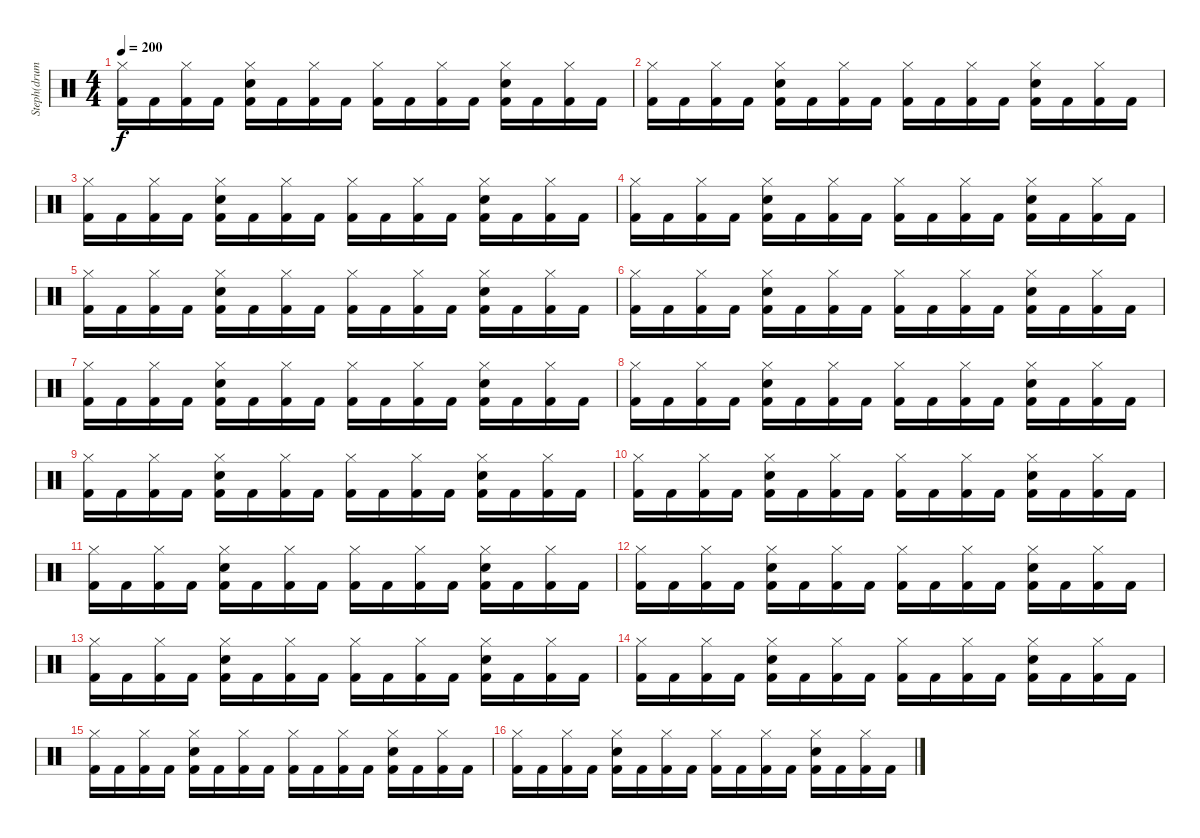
\track ("Steph(drums)" "Steph(drum") {instrument percussion}
\staff {score}
\articulation defaults
\ts (4 4)
\tempo 200
\clef neutral
\ks c
("Hi-Hat (closed)" "Kick (hit) 2").16{dy f} "Kick (hit) 2".16 ("Hi-Hat (closed)" "Kick (hit) 2").16 "Kick (hit) 2".16 ("Hi-Hat (closed)" "Electric Snare (hit)" "Kick (hit) 2").16 "Kick (hit) 2".16 ("Hi-Hat (closed)" "Kick (hit) 2").16 "Kick (hit) 2".16 ("Hi-Hat (closed)" "Kick (hit) 2").16 "Kick (hit) 2".16 ("Hi-Hat (closed)" "Kick (hit) 2").16 "Kick (hit) 2".16 ("Hi-Hat (closed)" "Electric Snare (hit)" "Kick (hit) 2").16 "Kick (hit) 2".16 ("Hi-Hat (closed)" "Kick (hit) 2").16 "Kick (hit) 2".16 |
("Hi-Hat (closed)" "Kick (hit) 2").16 "Kick (hit) 2".16 ("Hi-Hat (closed)" "Kick (hit) 2").16 "Kick (hit) 2".16 ("Hi-Hat (closed)" "Electric Snare (hit)" "Kick (hit) 2").16 "Kick (hit) 2".16 ("Hi-Hat (closed)" "Kick (hit) 2").16 "Kick (hit) 2".16 ("Hi-Hat (closed)" "Kick (hit) 2").16 "Kick (hit) 2".16 ("Hi-Hat (closed)" "Kick (hit) 2").16 "Kick (hit) 2".16 ("Hi-Hat (closed)" "Electric Snare (hit)" "Kick (hit) 2").16 "Kick (hit) 2".16 ("Hi-Hat (closed)" "Kick (hit) 2").16 "Kick (hit) 2".16 |
("Hi-Hat (closed)" "Kick (hit) 2").16 "Kick (hit) 2".16 ("Hi-Hat (closed)" "Kick (hit) 2").16 "Kick (hit) 2".16 ("Hi-Hat (closed)" "Electric Snare (hit)" "Kick (hit) 2").16 "Kick (hit) 2".16 ("Hi-Hat (closed)" "Kick (hit) 2").16 "Kick (hit) 2".16 ("Hi-Hat (closed)" "Kick (hit) 2").16 "Kick (hit) 2".16 ("Hi-Hat (closed)" "Kick (hit) 2").16 "Kick (hit) 2".16 ("Hi-Hat (closed)" "Electric Snare (hit)" "Kick (hit) 2").16 "Kick (hit) 2".16 ("Hi-Hat (closed)" "Kick (hit) 2").16 "Kick (hit) 2".16 |
("Hi-Hat (closed)" "Kick (hit) 2").16 "Kick (hit) 2".16 ("Hi-Hat (closed)" "Kick (hit) 2").16 "Kick (hit) 2".16 ("Hi-Hat (closed)" "Electric Snare (hit)" "Kick (hit) 2").16 "Kick (hit) 2".16 ("Hi-Hat (closed)" "Kick (hit) 2").16 "Kick (hit) 2".16 ("Hi-Hat (closed)" "Kick (hit) 2").16 "Kick (hit) 2".16 ("Hi-Hat (closed)" "Kick (hit) 2").16 "Kick (hit) 2".16 ("Hi-Hat (closed)" "Electric Snare (hit)" "Kick (hit) 2").16 "Kick (hit) 2".16 ("Hi-Hat (closed)" "Kick (hit) 2").16 "Kick (hit) 2".16 |
("Hi-Hat (closed)" "Kick (hit) 2").16 "Kick (hit) 2".16 ("Hi-Hat (closed)" "Kick (hit) 2").16 "Kick (hit) 2".16 ("Hi-Hat (closed)" "Electric Snare (hit)" "Kick (hit) 2").16 "Kick (hit) 2".16 ("Hi-Hat (closed)" "Kick (hit) 2").16 "Kick (hit) 2".16 ("Hi-Hat (closed)" "Kick (hit) 2").16 "Kick (hit) 2".16 ("Hi-Hat (closed)" "Kick (hit) 2").16 "Kick (hit) 2".16 ("Hi-Hat (closed)" "Electric Snare (hit)" "Kick (hit) 2").16 "Kick (hit) 2".16 ("Hi-Hat (closed)" "Kick (hit) 2").16 "Kick (hit) 2".16 |
("Hi-Hat (closed)" "Kick (hit) 2").16 "Kick (hit) 2".16 ("Hi-Hat (closed)" "Kick (hit) 2").16 "Kick (hit) 2".16 ("Hi-Hat (closed)" "Electric Snare (hit)" "Kick (hit) 2").16 "Kick (hit) 2".16 ("Hi-Hat (closed)" "Kick (hit) 2").16 "Kick (hit) 2".16 ("Hi-Hat (closed)" "Kick (hit) 2").16 "Kick (hit) 2".16 ("Hi-Hat (closed)" "Kick (hit) 2").16 "Kick (hit) 2".16 ("Hi-Hat (closed)" "Electric Snare (hit)" "Kick (hit) 2").16 "Kick (hit) 2".16 ("Hi-Hat (closed)" "Kick (hit) 2").16 "Kick (hit) 2".16 |
("Hi-Hat (closed)" "Kick (hit) 2").16 "Kick (hit) 2".16 ("Hi-Hat (closed)" "Kick (hit) 2").16 "Kick (hit) 2".16 ("Hi-Hat (closed)" "Electric Snare (hit)" "Kick (hit) 2").16 "Kick (hit) 2".16 ("Hi-Hat (closed)" "Kick (hit) 2").16 "Kick (hit) 2".16 ("Hi-Hat (closed)" "Kick (hit) 2").16 "Kick (hit) 2".16 ("Hi-Hat (closed)" "Kick (hit) 2").16 "Kick (hit) 2".16 ("Hi-Hat (closed)" "Electric Snare (hit)" "Kick (hit) 2").16 "Kick (hit) 2".16 ("Hi-Hat (closed)" "Kick (hit) 2").16 "Kick (hit) 2".16 |
("Hi-Hat (closed)" "Kick (hit) 2").16 "Kick (hit) 2".16 ("Hi-Hat (closed)" "Kick (hit) 2").16 "Kick (hit) 2".16 ("Hi-Hat (closed)" "Electric Snare (hit)" "Kick (hit) 2").16 "Kick (hit) 2".16 ("Hi-Hat (closed)" "Kick (hit) 2").16 "Kick (hit) 2".16 ("Hi-Hat (closed)" "Kick (hit) 2").16 "Kick (hit) 2".16 ("Hi-Hat (closed)" "Kick (hit) 2").16 "Kick (hit) 2".16 ("Hi-Hat (closed)" "Electric Snare (hit)" "Kick (hit) 2").16 "Kick (hit) 2".16 ("Hi-Hat (closed)" "Kick (hit) 2").16 "Kick (hit) 2".16 |
("Hi-Hat (closed)" "Kick (hit) 2").16 "Kick (hit) 2".16 ("Hi-Hat (closed)" "Kick (hit) 2").16 "Kick (hit) 2".16 ("Hi-Hat (closed)" "Electric Snare (hit)" "Kick (hit) 2").16 "Kick (hit) 2".16 ("Hi-Hat (closed)" "Kick (hit) 2").16 "Kick (hit) 2".16 ("Hi-Hat (closed)" "Kick (hit) 2").16 "Kick (hit) 2".16 ("Hi-Hat (closed)" "Kick (hit) 2").16 "Kick (hit) 2".16 ("Hi-Hat (closed)" "Electric Snare (hit)" "Kick (hit) 2").16 "Kick (hit) 2".16 ("Hi-Hat (closed)" "Kick (hit) 2").16 "Kick (hit) 2".16 |
("Hi-Hat (closed)" "Kick (hit) 2").16 "Kick (hit) 2".16 ("Hi-Hat (closed)" "Kick (hit) 2").16 "Kick (hit) 2".16 ("Hi-Hat (closed)" "Electric Snare (hit)" "Kick (hit) 2").16 "Kick (hit) 2".16 ("Hi-Hat (closed)" "Kick (hit) 2").16 "Kick (hit) 2".16 ("Hi-Hat (closed)" "Kick (hit) 2").16 "Kick (hit) 2".16 ("Hi-Hat (closed)" "Kick (hit) 2").16 "Kick (hit) 2".16 ("Hi-Hat (closed)" "Electric Snare (hit)" "Kick (hit) 2").16 "Kick (hit) 2".16 ("Hi-Hat (closed)" "Kick (hit) 2").16 "Kick (hit) 2".16 |
("Hi-Hat (closed)" "Kick (hit) 2").16 "Kick (hit) 2".16 ("Hi-Hat (closed)" "Kick (hit) 2").16 "Kick (hit) 2".16 ("Hi-Hat (closed)" "Electric Snare (hit)" "Kick (hit) 2").16 "Kick (hit) 2".16 ("Hi-Hat (closed)" "Kick (hit) 2").16 "Kick (hit) 2".16 ("Hi-Hat (closed)" "Kick (hit) 2").16 "Kick (hit) 2".16 ("Hi-Hat (closed)" "Kick (hit) 2").16 "Kick (hit) 2".16 ("Hi-Hat (closed)" "Electric Snare (hit)" "Kick (hit) 2").16 "Kick (hit) 2".16 ("Hi-Hat (closed)" "Kick (hit) 2").16 "Kick (hit) 2".16 |
("Hi-Hat (closed)" "Kick (hit) 2").16 "Kick (hit) 2".16 ("Hi-Hat (closed)" "Kick (hit) 2").16 "Kick (hit) 2".16 ("Hi-Hat (closed)" "Electric Snare (hit)" "Kick (hit) 2").16 "Kick (hit) 2".16 ("Hi-Hat (closed)" "Kick (hit) 2").16 "Kick (hit) 2".16 ("Hi-Hat (closed)" "Kick (hit) 2").16 "Kick (hit) 2".16 ("Hi-Hat (closed)" "Kick (hit) 2").16 "Kick (hit) 2".16 ("Hi-Hat (closed)" "Electric Snare (hit)" "Kick (hit) 2").16 "Kick (hit) 2".16 ("Hi-Hat (closed)" "Kick (hit) 2").16 "Kick (hit) 2".16 |
("Hi-Hat (closed)" "Kick (hit) 2").16 "Kick (hit) 2".16 ("Hi-Hat (closed)" "Kick (hit) 2").16 "Kick (hit) 2".16 ("Hi-Hat (closed)" "Electric Snare (hit)" "Kick (hit) 2").16 "Kick (hit) 2".16 ("Hi-Hat (closed)" "Kick (hit) 2").16 "Kick (hit) 2".16 ("Hi-Hat (closed)" "Kick (hit) 2").16 "Kick (hit) 2".16 ("Hi-Hat (closed)" "Kick (hit) 2").16 "Kick (hit) 2".16 ("Hi-Hat (closed)" "Electric Snare (hit)" "Kick (hit) 2").16 "Kick (hit) 2".16 ("Hi-Hat (closed)" "Kick (hit) 2").16 "Kick (hit) 2".16 |
("Hi-Hat (closed)" "Kick (hit) 2").16 "Kick (hit) 2".16 ("Hi-Hat (closed)" "Kick (hit) 2").16 "Kick (hit) 2".16 ("Hi-Hat (closed)" "Electric Snare (hit)" "Kick (hit) 2").16 "Kick (hit) 2".16 ("Hi-Hat (closed)" "Kick (hit) 2").16 "Kick (hit) 2".16 ("Hi-Hat (closed)" "Kick (hit) 2").16 "Kick (hit) 2".16 ("Hi-Hat (closed)" "Kick (hit) 2").16 "Kick (hit) 2".16 ("Hi-Hat (closed)" "Electric Snare (hit)" "Kick (hit) 2").16 "Kick (hit) 2".16 ("Hi-Hat (closed)" "Kick (hit) 2").16 "Kick (hit) 2".16 |
("Hi-Hat (closed)" "Kick (hit) 2").16 "Kick (hit) 2".16 ("Hi-Hat (closed)" "Kick (hit) 2").16 "Kick (hit) 2".16 ("Hi-Hat (closed)" "Electric Snare (hit)" "Kick (hit) 2").16 "Kick (hit) 2".16 ("Hi-Hat (closed)" "Kick (hit) 2").16 "Kick (hit) 2".16 ("Hi-Hat (closed)" "Kick (hit) 2").16 "Kick (hit) 2".16 ("Hi-Hat (closed)" "Kick (hit) 2").16 "Kick (hit) 2".16 ("Hi-Hat (closed)" "Electric Snare (hit)" "Kick (hit) 2").16 "Kick (hit) 2".16 ("Hi-Hat (closed)" "Kick (hit) 2").16 "Kick (hit) 2".16 |
("Hi-Hat (closed)" "Kick (hit) 2").16 "Kick (hit) 2".16 ("Hi-Hat (closed)" "Kick (hit) 2").16 "Kick (hit) 2".16 ("Hi-Hat (closed)" "Electric Snare (hit)" "Kick (hit) 2").16 "Kick (hit) 2".16 ("Hi-Hat (closed)" "Kick (hit) 2").16 "Kick (hit) 2".16 ("Hi-Hat (closed)" "Kick (hit) 2").16 "Kick (hit) 2".16 ("Hi-Hat (closed)" "Kick (hit) 2").16 "Kick (hit) 2".16 ("Hi-Hat (closed)" "Electric Snare (hit)" "Kick (hit) 2").16 "Kick (hit) 2".16 ("Hi-Hat (closed)" "Kick (hit) 2").16 "Kick (hit) 2".16
